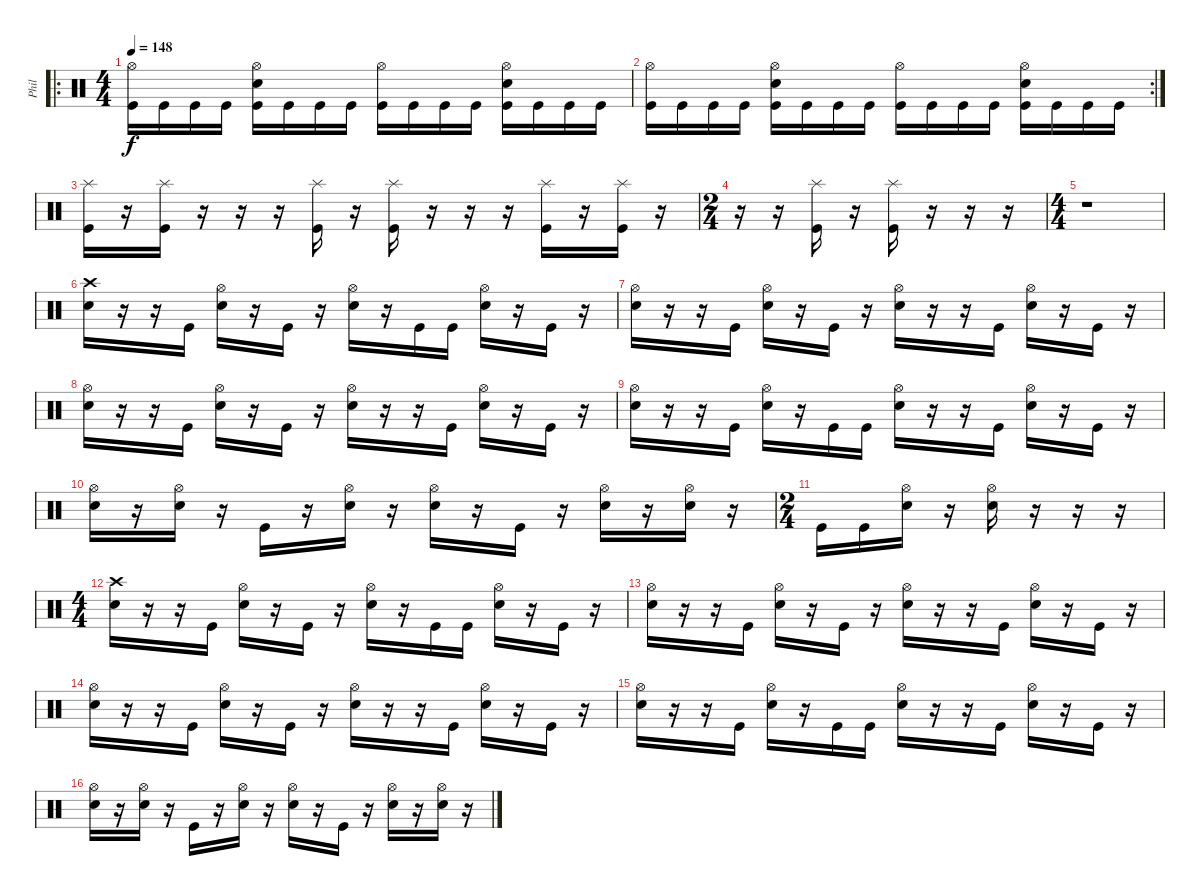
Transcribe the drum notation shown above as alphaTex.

\track ("Phil" "Phil") {instrument percussion}
\staff {score}
\articulation defaults
\ro
\ts (4 4)
\tempo 148
\clef neutral
\ks c
("Hi-Hat (open)" "Kick (hit)").16{dy f} "Kick (hit)".16 "Kick (hit)".16 "Kick (hit)".16 ("Hi-Hat (open)" "Electric Snare (hit)" "Kick (hit)").16 "Kick (hit)".16 "Kick (hit)".16 "Kick (hit)".16 ("Hi-Hat (open)" "Kick (hit)").16 "Kick (hit)".16 "Kick (hit)".16 "Kick (hit)".16 ("Hi-Hat (open)" "Electric Snare (hit)" "Kick (hit)").16 "Kick (hit)".16 "Kick (hit)".16 "Kick (hit)".16 |
\rc 2
("Hi-Hat (open)" "Kick (hit)").16 "Kick (hit)".16 "Kick (hit)".16 "Kick (hit)".16 ("Hi-Hat (open)" "Electric Snare (hit)" "Kick (hit)").16 "Kick (hit)".16 "Kick (hit)".16 "Kick (hit)".16 ("Hi-Hat (open)" "Kick (hit)").16 "Kick (hit)".16 "Kick (hit)".16 "Kick (hit)".16 ("Hi-Hat (open)" "Electric Snare (hit)" "Kick (hit)").16 "Kick (hit)".16 "Kick (hit)".16 "Kick (hit)".16 |
("Splash (hit)" "Kick (hit)").16 r.16 ("Splash (hit)" "Kick (hit)").16 r.16 r.16 r.16 ("Splash (hit)" "Kick (hit)").16 r.16 ("Splash (hit)" "Kick (hit)").16 r.16 r.16 r.16 ("Splash (hit)" "Kick (hit)").16 r.16 ("Splash (hit)" "Kick (hit)").16 r.16 |
\ts (2 4)
r.16 r.16 ("Splash (hit)" "Kick (hit)").16 r.16 ("Splash (hit)" "Kick (hit)").16 r.16 r.16 r.16 |
\ts (4 4)
r.1 |
("Crash high (hit)" "Electric Snare (hit)").16 r.16 r.16 "Kick (hit)".16 ("Hi-Hat (open)" "Electric Snare (hit)").16 r.16 "Kick (hit)".16 r.16 ("Hi-Hat (open)" "Electric Snare (hit)").16 r.16 "Kick (hit)".16 "Kick (hit)".16 ("Hi-Hat (open)" "Electric Snare (hit)").16 r.16 "Kick (hit)".16 r.16 |
("Hi-Hat (open)" "Electric Snare (hit)").16 r.16 r.16 "Kick (hit)".16 ("Hi-Hat (open)" "Electric Snare (hit)").16 r.16 "Kick (hit)".16 r.16 ("Hi-Hat (open)" "Electric Snare (hit)").16 r.16 r.16 "Kick (hit)".16 ("Hi-Hat (open)" "Electric Snare (hit)").16 r.16 "Kick (hit)".16 r.16 |
("Hi-Hat (open)" "Electric Snare (hit)").16 r.16 r.16 "Kick (hit)".16 ("Hi-Hat (open)" "Electric Snare (hit)").16 r.16 "Kick (hit)".16 r.16 ("Hi-Hat (open)" "Electric Snare (hit)").16 r.16 r.16 "Kick (hit)".16 ("Hi-Hat (open)" "Electric Snare (hit)").16 r.16 "Kick (hit)".16 r.16 |
("Hi-Hat (open)" "Electric Snare (hit)").16 r.16 r.16 "Kick (hit)".16 ("Hi-Hat (open)" "Electric Snare (hit)").16 r.16 "Kick (hit)".16 "Kick (hit)".16 ("Hi-Hat (open)" "Electric Snare (hit)").16 r.16 r.16 "Kick (hit)".16 ("Hi-Hat (open)" "Electric Snare (hit)").16 r.16 "Kick (hit)".16 r.16 |
("Hi-Hat (open)" "Electric Snare (hit)").16 r.16 ("Hi-Hat (open)" "Electric Snare (hit)").16 r.16 "Kick (hit)".16 r.16 ("Hi-Hat (open)" "Electric Snare (hit)").16 r.16 ("Hi-Hat (open)" "Electric Snare (hit)").16 r.16 "Kick (hit)".16 r.16 ("Hi-Hat (open)" "Electric Snare (hit)").16 r.16 ("Hi-Hat (open)" "Electric Snare (hit)").16 r.16 |
\ts (2 4)
"Kick (hit)".16 "Kick (hit)".16 ("Hi-Hat (open)" "Electric Snare (hit)").16 r.16 ("Hi-Hat (open)" "Electric Snare (hit)").16 r.16 r.16 r.16 |
\ts (4 4)
("Crash high (hit)" "Electric Snare (hit)").16 r.16 r.16 "Kick (hit)".16 ("Hi-Hat (open)" "Electric Snare (hit)").16 r.16 "Kick (hit)".16 r.16 ("Hi-Hat (open)" "Electric Snare (hit)").16 r.16 "Kick (hit)".16 "Kick (hit)".16 ("Hi-Hat (open)" "Electric Snare (hit)").16 r.16 "Kick (hit)".16 r.16 |
("Hi-Hat (open)" "Electric Snare (hit)").16 r.16 r.16 "Kick (hit)".16 ("Hi-Hat (open)" "Electric Snare (hit)").16 r.16 "Kick (hit)".16 r.16 ("Hi-Hat (open)" "Electric Snare (hit)").16 r.16 r.16 "Kick (hit)".16 ("Hi-Hat (open)" "Electric Snare (hit)").16 r.16 "Kick (hit)".16 r.16 |
("Hi-Hat (open)" "Electric Snare (hit)").16 r.16 r.16 "Kick (hit)".16 ("Hi-Hat (open)" "Electric Snare (hit)").16 r.16 "Kick (hit)".16 r.16 ("Hi-Hat (open)" "Electric Snare (hit)").16 r.16 r.16 "Kick (hit)".16 ("Hi-Hat (open)" "Electric Snare (hit)").16 r.16 "Kick (hit)".16 r.16 |
("Hi-Hat (open)" "Electric Snare (hit)").16 r.16 r.16 "Kick (hit)".16 ("Hi-Hat (open)" "Electric Snare (hit)").16 r.16 "Kick (hit)".16 "Kick (hit)".16 ("Hi-Hat (open)" "Electric Snare (hit)").16 r.16 r.16 "Kick (hit)".16 ("Hi-Hat (open)" "Electric Snare (hit)").16 r.16 "Kick (hit)".16 r.16 |
("Hi-Hat (open)" "Electric Snare (hit)").16 r.16 ("Hi-Hat (open)" "Electric Snare (hit)").16 r.16 "Kick (hit)".16 r.16 ("Hi-Hat (open)" "Electric Snare (hit)").16 r.16 ("Hi-Hat (open)" "Electric Snare (hit)").16 r.16 "Kick (hit)".16 r.16 ("Hi-Hat (open)" "Electric Snare (hit)").16 r.16 ("Hi-Hat (open)" "Electric Snare (hit)").16 r.16
